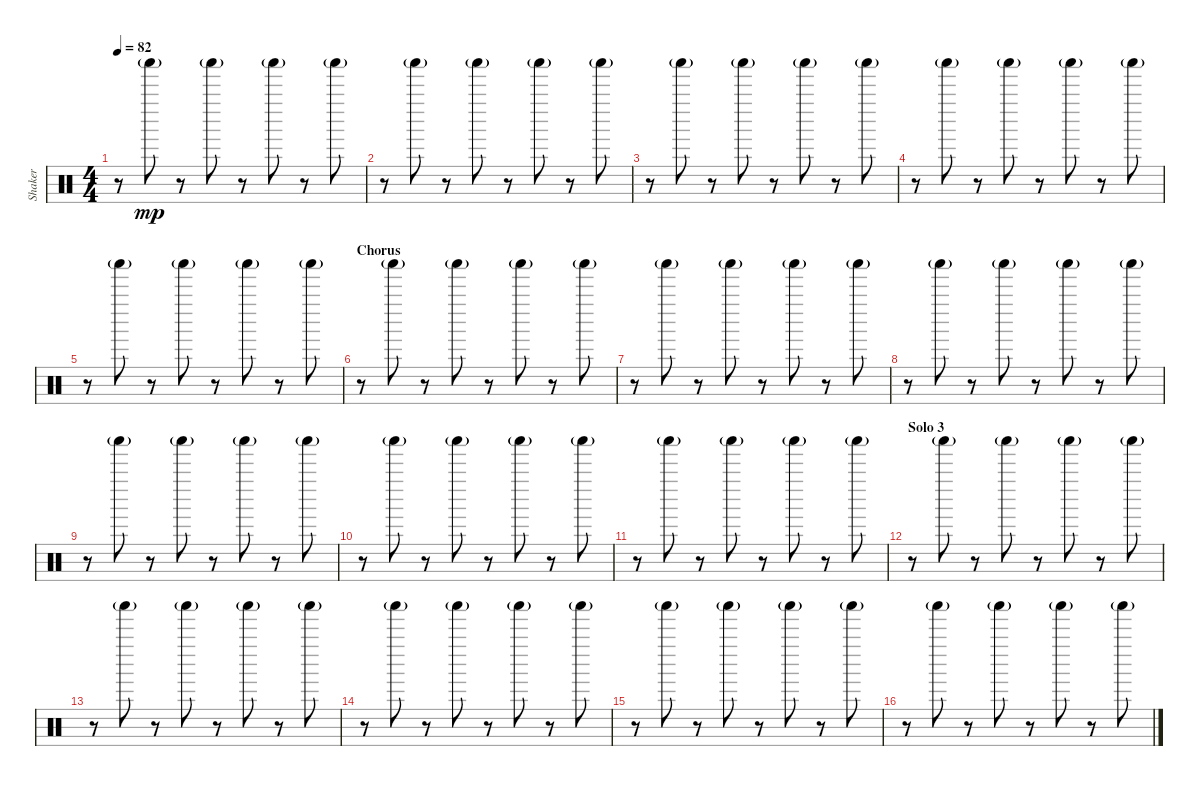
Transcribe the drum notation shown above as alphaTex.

\track ("Shaker" "Shaker") {instrument percussion}
\staff {score}
\articulation defaults
\ts (4 4)
\tempo 82
\clef neutral
\ks c
r.8{dy mp} "Shaker (hit)"{g}.8 r.8 "Shaker (hit)"{g}.8 r.8 "Shaker (hit)"{g}.8 r.8 "Shaker (hit)"{g}.8 |
r.8 "Shaker (hit)"{g}.8 r.8 "Shaker (hit)"{g}.8 r.8 "Shaker (hit)"{g}.8 r.8 "Shaker (hit)"{g}.8 |
r.8 "Shaker (hit)"{g}.8 r.8 "Shaker (hit)"{g}.8 r.8 "Shaker (hit)"{g}.8 r.8 "Shaker (hit)"{g}.8 |
r.8 "Shaker (hit)"{g}.8 r.8 "Shaker (hit)"{g}.8 r.8 "Shaker (hit)"{g}.8 r.8 "Shaker (hit)"{g}.8 |
r.8 "Shaker (hit)"{g}.8 r.8 "Shaker (hit)"{g}.8 r.8 "Shaker (hit)"{g}.8 r.8 "Shaker (hit)"{g}.8 |
\section ("" "Chorus")
r.8 "Shaker (hit)"{g}.8 r.8 "Shaker (hit)"{g}.8 r.8 "Shaker (hit)"{g}.8 r.8 "Shaker (hit)"{g}.8 |
r.8 "Shaker (hit)"{g}.8 r.8 "Shaker (hit)"{g}.8 r.8 "Shaker (hit)"{g}.8 r.8 "Shaker (hit)"{g}.8 |
r.8 "Shaker (hit)"{g}.8 r.8 "Shaker (hit)"{g}.8 r.8 "Shaker (hit)"{g}.8 r.8 "Shaker (hit)"{g}.8 |
r.8 "Shaker (hit)"{g}.8 r.8 "Shaker (hit)"{g}.8 r.8 "Shaker (hit)"{g}.8 r.8 "Shaker (hit)"{g}.8 |
r.8 "Shaker (hit)"{g}.8 r.8 "Shaker (hit)"{g}.8 r.8 "Shaker (hit)"{g}.8 r.8 "Shaker (hit)"{g}.8 |
r.8 "Shaker (hit)"{g}.8 r.8 "Shaker (hit)"{g}.8 r.8 "Shaker (hit)"{g}.8 r.8 "Shaker (hit)"{g}.8 |
\section ("" "Solo 3")
r.8 "Shaker (hit)"{g}.8 r.8 "Shaker (hit)"{g}.8 r.8 "Shaker (hit)"{g}.8 r.8 "Shaker (hit)"{g}.8 |
r.8 "Shaker (hit)"{g}.8 r.8 "Shaker (hit)"{g}.8 r.8 "Shaker (hit)"{g}.8 r.8 "Shaker (hit)"{g}.8 |
r.8 "Shaker (hit)"{g}.8 r.8 "Shaker (hit)"{g}.8 r.8 "Shaker (hit)"{g}.8 r.8 "Shaker (hit)"{g}.8 |
r.8 "Shaker (hit)"{g}.8 r.8 "Shaker (hit)"{g}.8 r.8 "Shaker (hit)"{g}.8 r.8 "Shaker (hit)"{g}.8 |
r.8 "Shaker (hit)"{g}.8 r.8 "Shaker (hit)"{g}.8 r.8 "Shaker (hit)"{g}.8 r.8 "Shaker (hit)"{g}.8
